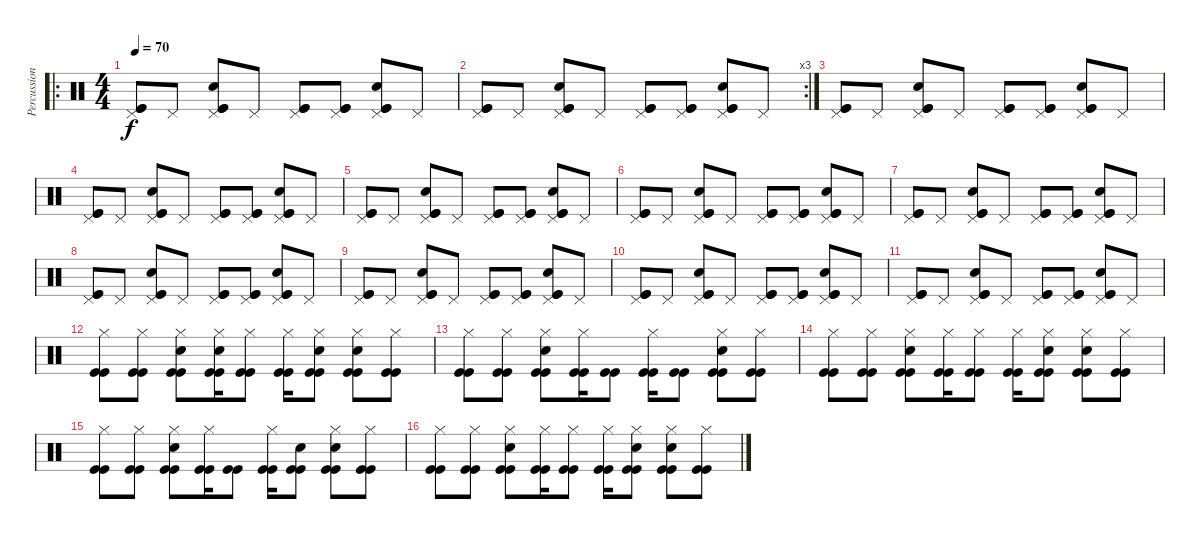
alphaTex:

\track ("Percussion" "Percussion") {instrument percussion}
\staff {score}
\articulation defaults
\ro
\ts (4 4)
\tempo 70
\clef neutral
\ks c
("Pedal Hi-Hat (hit)" "Kick (hit)" "Kick (hit)").8{dy f} "Pedal Hi-Hat (hit)".8 ("Pedal Hi-Hat (hit)" "Kick (hit)" "Kick (hit)" "Electric Snare (hit)").8 "Pedal Hi-Hat (hit)".8 ("Pedal Hi-Hat (hit)" "Kick (hit)" "Kick (hit)").8 ("Pedal Hi-Hat (hit)" "Kick (hit)" "Kick (hit)").8 ("Pedal Hi-Hat (hit)" "Kick (hit)" "Kick (hit)" "Electric Snare (hit)").8 "Pedal Hi-Hat (hit)".8 |
\rc 3
("Pedal Hi-Hat (hit)" "Kick (hit)" "Kick (hit)").8 "Pedal Hi-Hat (hit)".8 ("Pedal Hi-Hat (hit)" "Kick (hit)" "Kick (hit)" "Electric Snare (hit)").8 "Pedal Hi-Hat (hit)".8 ("Pedal Hi-Hat (hit)" "Kick (hit)" "Kick (hit)").8 ("Pedal Hi-Hat (hit)" "Kick (hit)" "Kick (hit)").8 ("Pedal Hi-Hat (hit)" "Kick (hit)" "Kick (hit)" "Electric Snare (hit)").8 "Pedal Hi-Hat (hit)".8 |
("Pedal Hi-Hat (hit)" "Kick (hit)" "Kick (hit)").8 "Pedal Hi-Hat (hit)".8 ("Pedal Hi-Hat (hit)" "Kick (hit)" "Kick (hit)" "Electric Snare (hit)").8 "Pedal Hi-Hat (hit)".8 ("Pedal Hi-Hat (hit)" "Kick (hit)" "Kick (hit)").8 ("Pedal Hi-Hat (hit)" "Kick (hit)" "Kick (hit)").8 ("Pedal Hi-Hat (hit)" "Kick (hit)" "Kick (hit)" "Electric Snare (hit)").8 "Pedal Hi-Hat (hit)".8 |
("Pedal Hi-Hat (hit)" "Kick (hit)" "Kick (hit)").8 "Pedal Hi-Hat (hit)".8 ("Pedal Hi-Hat (hit)" "Kick (hit)" "Kick (hit)" "Electric Snare (hit)").8 "Pedal Hi-Hat (hit)".8 ("Pedal Hi-Hat (hit)" "Kick (hit)" "Kick (hit)").8 ("Pedal Hi-Hat (hit)" "Kick (hit)" "Kick (hit)").8 ("Pedal Hi-Hat (hit)" "Kick (hit)" "Kick (hit)" "Electric Snare (hit)").8 "Pedal Hi-Hat (hit)".8 |
("Pedal Hi-Hat (hit)" "Kick (hit)" "Kick (hit)").8 "Pedal Hi-Hat (hit)".8 ("Pedal Hi-Hat (hit)" "Kick (hit)" "Kick (hit)" "Electric Snare (hit)").8 "Pedal Hi-Hat (hit)".8 ("Pedal Hi-Hat (hit)" "Kick (hit)" "Kick (hit)").8 ("Pedal Hi-Hat (hit)" "Kick (hit)" "Kick (hit)").8 ("Pedal Hi-Hat (hit)" "Kick (hit)" "Kick (hit)" "Electric Snare (hit)").8 "Pedal Hi-Hat (hit)".8 |
("Pedal Hi-Hat (hit)" "Kick (hit)" "Kick (hit)").8 "Pedal Hi-Hat (hit)".8 ("Pedal Hi-Hat (hit)" "Kick (hit)" "Kick (hit)" "Electric Snare (hit)").8 "Pedal Hi-Hat (hit)".8 ("Pedal Hi-Hat (hit)" "Kick (hit)" "Kick (hit)").8 ("Pedal Hi-Hat (hit)" "Kick (hit)" "Kick (hit)").8 ("Pedal Hi-Hat (hit)" "Kick (hit)" "Kick (hit)" "Electric Snare (hit)").8 "Pedal Hi-Hat (hit)".8 |
("Pedal Hi-Hat (hit)" "Kick (hit)" "Kick (hit)").8 "Pedal Hi-Hat (hit)".8 ("Pedal Hi-Hat (hit)" "Kick (hit)" "Kick (hit)" "Electric Snare (hit)").8 "Pedal Hi-Hat (hit)".8 ("Pedal Hi-Hat (hit)" "Kick (hit)" "Kick (hit)").8 ("Pedal Hi-Hat (hit)" "Kick (hit)" "Kick (hit)").8 ("Pedal Hi-Hat (hit)" "Kick (hit)" "Kick (hit)" "Electric Snare (hit)").8 "Pedal Hi-Hat (hit)".8 |
("Pedal Hi-Hat (hit)" "Kick (hit)" "Kick (hit)").8 "Pedal Hi-Hat (hit)".8 ("Pedal Hi-Hat (hit)" "Kick (hit)" "Kick (hit)" "Electric Snare (hit)").8 "Pedal Hi-Hat (hit)".8 ("Pedal Hi-Hat (hit)" "Kick (hit)" "Kick (hit)").8 ("Pedal Hi-Hat (hit)" "Kick (hit)" "Kick (hit)").8 ("Pedal Hi-Hat (hit)" "Kick (hit)" "Kick (hit)" "Electric Snare (hit)").8 "Pedal Hi-Hat (hit)".8 |
("Pedal Hi-Hat (hit)" "Kick (hit)" "Kick (hit)").8 "Pedal Hi-Hat (hit)".8 ("Pedal Hi-Hat (hit)" "Kick (hit)" "Kick (hit)" "Electric Snare (hit)").8 "Pedal Hi-Hat (hit)".8 ("Pedal Hi-Hat (hit)" "Kick (hit)" "Kick (hit)").8 ("Pedal Hi-Hat (hit)" "Kick (hit)" "Kick (hit)").8 ("Pedal Hi-Hat (hit)" "Kick (hit)" "Kick (hit)" "Electric Snare (hit)").8 "Pedal Hi-Hat (hit)".8 |
("Pedal Hi-Hat (hit)" "Kick (hit)" "Kick (hit)").8 "Pedal Hi-Hat (hit)".8 ("Pedal Hi-Hat (hit)" "Kick (hit)" "Kick (hit)" "Electric Snare (hit)").8 "Pedal Hi-Hat (hit)".8 ("Pedal Hi-Hat (hit)" "Kick (hit)" "Kick (hit)").8 ("Pedal Hi-Hat (hit)" "Kick (hit)" "Kick (hit)").8 ("Pedal Hi-Hat (hit)" "Kick (hit)" "Kick (hit)" "Electric Snare (hit)").8 "Pedal Hi-Hat (hit)".8 |
("Pedal Hi-Hat (hit)" "Kick (hit)" "Kick (hit)").8 "Pedal Hi-Hat (hit)".8 ("Pedal Hi-Hat (hit)" "Kick (hit)" "Kick (hit)" "Electric Snare (hit)").8 "Pedal Hi-Hat (hit)".8 ("Pedal Hi-Hat (hit)" "Kick (hit)" "Kick (hit)").8 ("Pedal Hi-Hat (hit)" "Kick (hit)" "Kick (hit)").8 ("Pedal Hi-Hat (hit)" "Kick (hit)" "Kick (hit)" "Electric Snare (hit)").8 "Pedal Hi-Hat (hit)".8 |
("Hi-Hat (closed)" "Kick (hit)" "Kick (hit)").8 ("Hi-Hat (closed)" "Kick (hit)" "Kick (hit)").8 ("Hi-Hat (closed)" "Kick (hit)" "Kick (hit)" "Electric Snare (hit)").8 ("Hi-Hat (closed)" "Kick (hit)" "Kick (hit)" "Electric Snare (hit)").16 ("Hi-Hat (closed)" "Kick (hit)" "Kick (hit)").8 ("Hi-Hat (closed)" "Kick (hit)" "Kick (hit)").16 ("Hi-Hat (closed)" "Kick (hit)" "Kick (hit)" "Electric Snare (hit)").8 ("Hi-Hat (closed)" "Kick (hit)" "Kick (hit)" "Electric Snare (hit)").8 ("Hi-Hat (closed)" "Kick (hit)" "Kick (hit)").8 |
("Hi-Hat (closed)" "Kick (hit)" "Kick (hit)").8 ("Hi-Hat (closed)" "Kick (hit)" "Kick (hit)").8 ("Hi-Hat (closed)" "Kick (hit)" "Kick (hit)" "Electric Snare (hit)").8 ("Hi-Hat (closed)" "Kick (hit)" "Kick (hit)").16 ("Kick (hit)" "Kick (hit)").8 ("Hi-Hat (closed)" "Kick (hit)" "Kick (hit)").16 ("Kick (hit)" "Kick (hit)").8 ("Hi-Hat (closed)" "Kick (hit)" "Kick (hit)" "Electric Snare (hit)").8 ("Hi-Hat (closed)" "Kick (hit)" "Kick (hit)").8 |
("Hi-Hat (closed)" "Kick (hit)" "Kick (hit)").8 ("Hi-Hat (closed)" "Kick (hit)" "Kick (hit)").8 ("Hi-Hat (closed)" "Kick (hit)" "Kick (hit)" "Electric Snare (hit)").8 ("Hi-Hat (closed)" "Kick (hit)" "Kick (hit)").16 ("Hi-Hat (closed)" "Kick (hit)" "Kick (hit)").8 ("Hi-Hat (closed)" "Kick (hit)" "Kick (hit)").16 ("Hi-Hat (closed)" "Kick (hit)" "Kick (hit)" "Electric Snare (hit)").8 ("Hi-Hat (closed)" "Kick (hit)" "Kick (hit)" "Electric Snare (hit)").8 ("Hi-Hat (closed)" "Kick (hit)" "Kick (hit)").8 |
("Hi-Hat (closed)" "Kick (hit)" "Kick (hit)").8 ("Hi-Hat (closed)" "Kick (hit)" "Kick (hit)").8 ("Hi-Hat (closed)" "Kick (hit)" "Kick (hit)" "Electric Snare (hit)").8 ("Hi-Hat (closed)" "Kick (hit)" "Kick (hit)").16 ("Kick (hit)" "Kick (hit)").8 ("Hi-Hat (closed)" "Kick (hit)" "Kick (hit)").16 ("Kick (hit)" "Kick (hit)" "Electric Snare (hit)").8 ("Hi-Hat (closed)" "Kick (hit)" "Kick (hit)" "Electric Snare (hit)").8 ("Hi-Hat (closed)" "Kick (hit)" "Kick (hit)").8 |
("Hi-Hat (closed)" "Kick (hit)" "Kick (hit)").8 ("Hi-Hat (closed)" "Kick (hit)" "Kick (hit)").8 ("Hi-Hat (closed)" "Kick (hit)" "Kick (hit)" "Electric Snare (hit)").8 ("Hi-Hat (closed)" "Kick (hit)" "Kick (hit)").16 ("Hi-Hat (closed)" "Kick (hit)" "Kick (hit)").8 ("Hi-Hat (closed)" "Kick (hit)" "Kick (hit)").16 ("Hi-Hat (closed)" "Kick (hit)" "Kick (hit)" "Electric Snare (hit)").8 ("Hi-Hat (closed)" "Kick (hit)" "Kick (hit)" "Electric Snare (hit)").8 ("Hi-Hat (closed)" "Kick (hit)" "Kick (hit)").8
